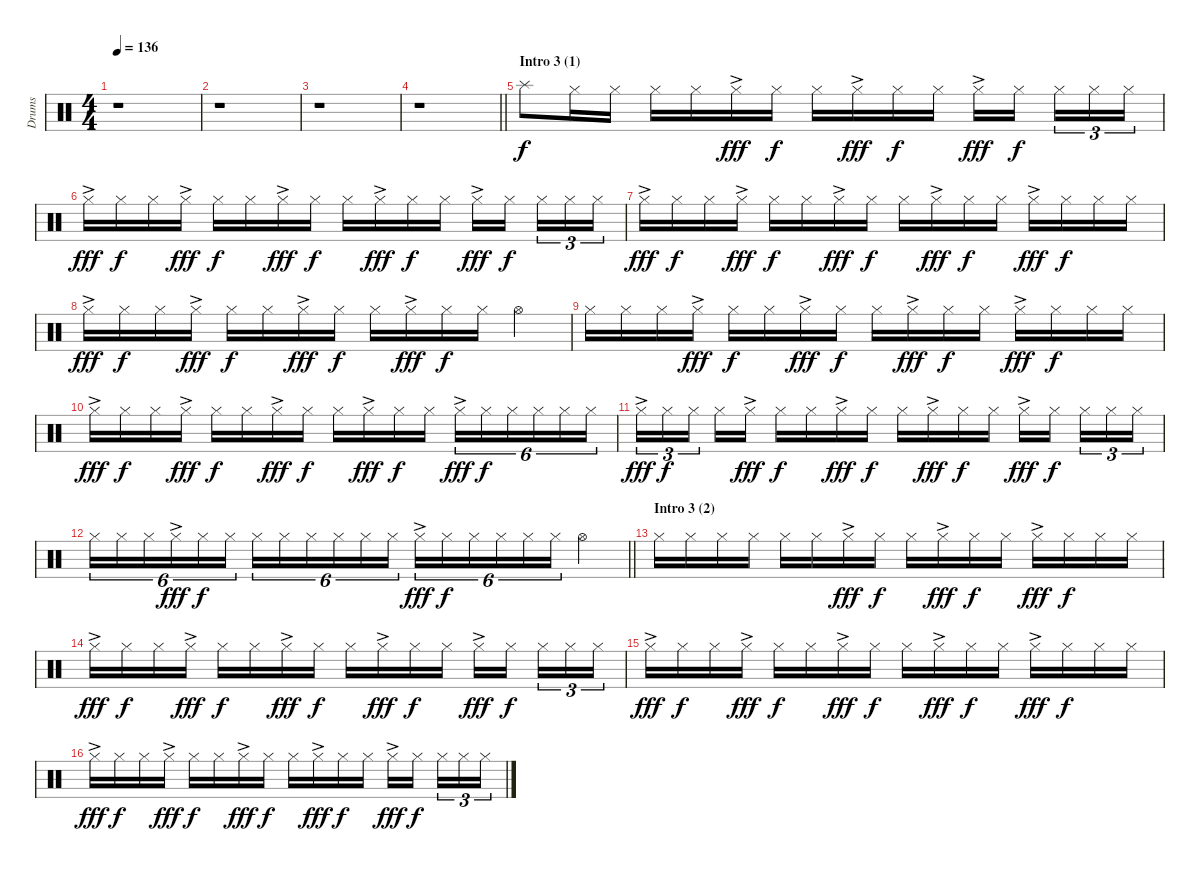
\track ("Drums" "Drums") {instrument percussion}
\staff {score}
\articulation defaults
\ts (4 4)
\tempo 136
\clef neutral
\ks c
r.1{dy f} |
r.1 |
r.1 |
\barLineRight lightlight
r.1 |
\section ("" "Intro 3 (1)")
"Splash (hit)".8 "Hi-Hat (closed)".16 "Hi-Hat (closed)".16 "Hi-Hat (closed)".16 "Hi-Hat (closed)".16 "Hi-Hat (closed)"{ac}.16{dy fff} "Hi-Hat (closed)".16{dy f} "Hi-Hat (closed)".16 "Hi-Hat (closed)"{ac}.16{dy fff} "Hi-Hat (closed)".16{dy f} "Hi-Hat (closed)".16 "Hi-Hat (closed)"{ac}.16{dy fff} "Hi-Hat (closed)".16{dy f} "Hi-Hat (closed)".16{tu (3 2)} "Hi-Hat (closed)".16{tu (3 2)} "Hi-Hat (closed)".16{tu (3 2)} |
"Hi-Hat (closed)"{ac}.16{dy fff} "Hi-Hat (closed)".16{dy f} "Hi-Hat (closed)".16 "Hi-Hat (closed)"{ac}.16{dy fff} "Hi-Hat (closed)".16{dy f} "Hi-Hat (closed)".16 "Hi-Hat (closed)"{ac}.16{dy fff} "Hi-Hat (closed)".16{dy f} "Hi-Hat (closed)".16 "Hi-Hat (closed)"{ac}.16{dy fff} "Hi-Hat (closed)".16{dy f} "Hi-Hat (closed)".16 "Hi-Hat (closed)"{ac}.16{dy fff} "Hi-Hat (closed)".16{dy f} "Hi-Hat (closed)".16{tu (3 2)} "Hi-Hat (closed)".16{tu (3 2)} "Hi-Hat (closed)".16{tu (3 2)} |
"Hi-Hat (closed)"{ac}.16{dy fff} "Hi-Hat (closed)".16{dy f} "Hi-Hat (closed)".16 "Hi-Hat (closed)"{ac}.16{dy fff} "Hi-Hat (closed)".16{dy f} "Hi-Hat (closed)".16 "Hi-Hat (closed)"{ac}.16{dy fff} "Hi-Hat (closed)".16{dy f} "Hi-Hat (closed)".16 "Hi-Hat (closed)"{ac}.16{dy fff} "Hi-Hat (closed)".16{dy f} "Hi-Hat (closed)".16 "Hi-Hat (closed)"{ac}.16{dy fff} "Hi-Hat (closed)".16{dy f} "Hi-Hat (closed)".16 "Hi-Hat (closed)".16 |
"Hi-Hat (closed)"{ac}.16{dy fff} "Hi-Hat (closed)".16{dy f} "Hi-Hat (closed)".16 "Hi-Hat (closed)"{ac}.16{dy fff} "Hi-Hat (closed)".16{dy f} "Hi-Hat (closed)".16 "Hi-Hat (closed)"{ac}.16{dy fff} "Hi-Hat (closed)".16{dy f} "Hi-Hat (closed)".16 "Hi-Hat (closed)"{ac}.16{dy fff} "Hi-Hat (closed)".16{dy f} "Hi-Hat (closed)".16 "Hi-Hat (open)".4 |
"Hi-Hat (closed)".16 "Hi-Hat (closed)".16 "Hi-Hat (closed)".16 "Hi-Hat (closed)"{ac}.16{dy fff} "Hi-Hat (closed)".16{dy f} "Hi-Hat (closed)".16 "Hi-Hat (closed)"{ac}.16{dy fff} "Hi-Hat (closed)".16{dy f} "Hi-Hat (closed)".16 "Hi-Hat (closed)"{ac}.16{dy fff} "Hi-Hat (closed)".16{dy f} "Hi-Hat (closed)".16 "Hi-Hat (closed)"{ac}.16{dy fff} "Hi-Hat (closed)".16{dy f} "Hi-Hat (closed)".16 "Hi-Hat (closed)".16 |
"Hi-Hat (closed)"{ac}.16{dy fff} "Hi-Hat (closed)".16{dy f} "Hi-Hat (closed)".16 "Hi-Hat (closed)"{ac}.16{dy fff} "Hi-Hat (closed)".16{dy f} "Hi-Hat (closed)".16 "Hi-Hat (closed)"{ac}.16{dy fff} "Hi-Hat (closed)".16{dy f} "Hi-Hat (closed)".16 "Hi-Hat (closed)"{ac}.16{dy fff} "Hi-Hat (closed)".16{dy f} "Hi-Hat (closed)".16 "Hi-Hat (closed)"{ac}.16{tu (6 4) dy fff} "Hi-Hat (closed)".16{tu (6 4) dy f} "Hi-Hat (closed)".16{tu (6 4)} "Hi-Hat (closed)".16{tu (6 4)} "Hi-Hat (closed)".16{tu (6 4)} "Hi-Hat (closed)".16{tu (6 4)} |
"Hi-Hat (closed)"{ac}.16{tu (3 2) dy fff} "Hi-Hat (closed)".16{tu (3 2) dy f} "Hi-Hat (closed)".16{tu (3 2)} "Hi-Hat (closed)".16 "Hi-Hat (closed)"{ac}.16{dy fff} "Hi-Hat (closed)".16{dy f} "Hi-Hat (closed)".16 "Hi-Hat (closed)"{ac}.16{dy fff} "Hi-Hat (closed)".16{dy f} "Hi-Hat (closed)".16 "Hi-Hat (closed)"{ac}.16{dy fff} "Hi-Hat (closed)".16{dy f} "Hi-Hat (closed)".16 "Hi-Hat (closed)"{ac}.16{dy fff} "Hi-Hat (closed)".16{dy f} "Hi-Hat (closed)".16{tu (3 2)} "Hi-Hat (closed)".16{tu (3 2)} "Hi-Hat (closed)".16{tu (3 2)} |
\barLineRight lightlight "Hi-Hat (closed)".16{tu (6 4)} "Hi-Hat (closed)".16{tu (6 4)} "Hi-Hat (closed)".16{tu (6 4)} "Hi-Hat (closed)"{ac}.16{tu (6 4) dy fff} "Hi-Hat (closed)".16{tu (6 4) dy f} "Hi-Hat (closed)".16{tu (6 4)} "Hi-Hat (closed)".16{tu (6 4)} "Hi-Hat (closed)".16{tu (6 4)} "Hi-Hat (closed)".16{tu (6 4)} "Hi-Hat (closed)".16{tu (6 4)} "Hi-Hat (closed)".16{tu (6 4)} "Hi-Hat (closed)".16{tu (6 4)} "Hi-Hat (closed)"{ac}.16{tu (6 4) dy fff} "Hi-Hat (closed)".16{tu (6 4) dy f} "Hi-Hat (closed)".16{tu (6 4)} "Hi-Hat (closed)".16{tu (6 4)} "Hi-Hat (closed)".16{tu (6 4)} "Hi-Hat (closed)".16{tu (6 4)} "Hi-Hat (open)".4
|
\section ("" "Intro 3 (2)")
"Hi-Hat (closed)".16 "Hi-Hat (closed)".16 "Hi-Hat (closed)".16 "Hi-Hat (closed)".16 "Hi-Hat (closed)".16 "Hi-Hat (closed)".16 "Hi-Hat (closed)"{ac}.16{dy fff} "Hi-Hat (closed)".16{dy f} "Hi-Hat (closed)".16 "Hi-Hat (closed)"{ac}.16{dy fff} "Hi-Hat (closed)".16{dy f} "Hi-Hat (closed)".16 "Hi-Hat (closed)"{ac}.16{dy fff} "Hi-Hat (closed)".16{dy f} "Hi-Hat (closed)".16 "Hi-Hat (closed)".16 |
"Hi-Hat (closed)"{ac}.16{dy fff} "Hi-Hat (closed)".16{dy f} "Hi-Hat (closed)".16 "Hi-Hat (closed)"{ac}.16{dy fff} "Hi-Hat (closed)".16{dy f} "Hi-Hat (closed)".16 "Hi-Hat (closed)"{ac}.16{dy fff} "Hi-Hat (closed)".16{dy f} "Hi-Hat (closed)".16 "Hi-Hat (closed)"{ac}.16{dy fff} "Hi-Hat (closed)".16{dy f} "Hi-Hat (closed)".16 "Hi-Hat (closed)"{ac}.16{dy fff} "Hi-Hat (closed)".16{dy f} "Hi-Hat (closed)".16{tu (3 2)} "Hi-Hat (closed)".16{tu (3 2)} "Hi-Hat (closed)".16{tu (3 2)} |
"Hi-Hat (closed)"{ac}.16{dy fff} "Hi-Hat (closed)".16{dy f} "Hi-Hat (closed)".16 "Hi-Hat (closed)"{ac}.16{dy fff} "Hi-Hat (closed)".16{dy f} "Hi-Hat (closed)".16 "Hi-Hat (closed)"{ac}.16{dy fff} "Hi-Hat (closed)".16{dy f} "Hi-Hat (closed)".16 "Hi-Hat (closed)"{ac}.16{dy fff} "Hi-Hat (closed)".16{dy f} "Hi-Hat (closed)".16 "Hi-Hat (closed)"{ac}.16{dy fff} "Hi-Hat (closed)".16{dy f} "Hi-Hat (closed)".16 "Hi-Hat (closed)".16 |
"Hi-Hat (closed)"{ac}.16{dy fff} "Hi-Hat (closed)".16{dy f} "Hi-Hat (closed)".16 "Hi-Hat (closed)"{ac}.16{dy fff} "Hi-Hat (closed)".16{dy f} "Hi-Hat (closed)".16 "Hi-Hat (closed)"{ac}.16{dy fff} "Hi-Hat (closed)".16{dy f} "Hi-Hat (closed)".16 "Hi-Hat (closed)"{ac}.16{dy fff} "Hi-Hat (closed)".16{dy f} "Hi-Hat (closed)".16 "Hi-Hat (closed)"{ac}.16{dy fff} "Hi-Hat (closed)".16{dy f} "Hi-Hat (closed)".16{tu (3 2)} "Hi-Hat (closed)".16{tu (3 2)} "Hi-Hat (closed)".16{tu (3 2)}
